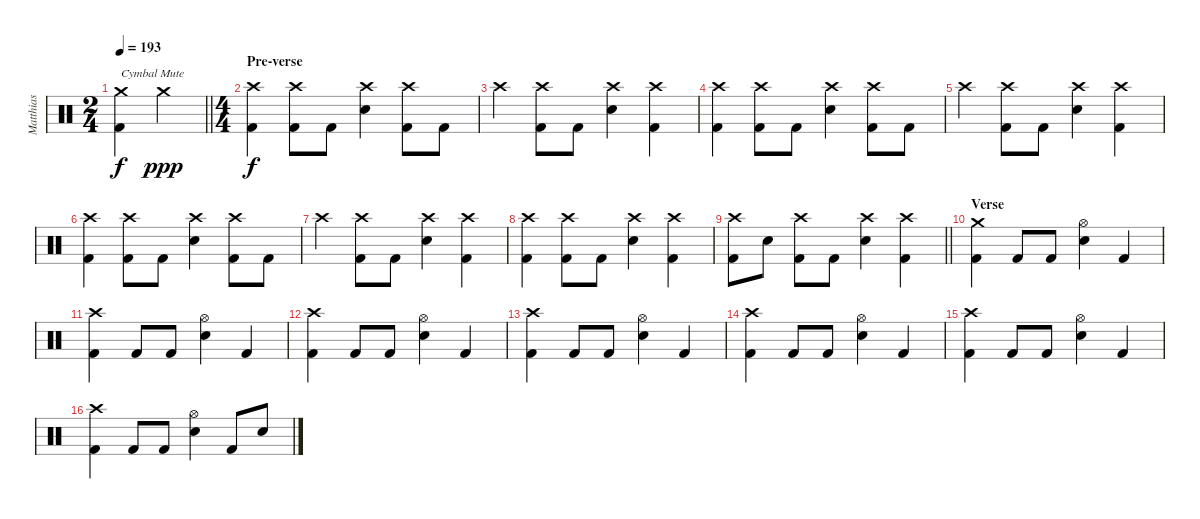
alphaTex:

\track ("Matthias" "Matthias") {instrument percussion}
\staff {score}
\articulation defaults
\ts (2 4)
\tempo 193
\clef neutral
\barLineRight lightlight
\ks c
("Crash medium (hit)" "Kick (hit) 2").4{txt "Cymbal Mute" dy f} "Crash medium (hit)".4{dy ppp} |
\ts (4 4)
\section ("" "Pre-verse")
("Crash high (hit)" "Kick (hit) 2").4{dy f} ("Crash high (hit)" "Kick (hit) 2").8 "Kick (hit) 2".8 ("Crash high (hit)" "Electric Snare (hit)").4 ("Crash high (hit)" "Kick (hit) 2").8 "Kick (hit) 2".8 |
"Crash high (hit)".4 ("Crash high (hit)" "Kick (hit) 2").8 "Kick (hit) 2".8 ("Crash high (hit)" "Electric Snare (hit)").4 ("Crash high (hit)" "Kick (hit) 2").4 |
("Crash high (hit)" "Kick (hit) 2").4 ("Crash high (hit)" "Kick (hit) 2").8 "Kick (hit) 2".8 ("Crash high (hit)" "Electric Snare (hit)").4 ("Crash high (hit)" "Kick (hit) 2").8 "Kick (hit) 2".8 |
"Crash high (hit)".4 ("Crash high (hit)" "Kick (hit) 2").8 "Kick (hit) 2".8 ("Crash high (hit)" "Electric Snare (hit)").4 ("Crash high (hit)" "Kick (hit) 2").4 |
("Crash high (hit)" "Kick (hit) 2").4 ("Crash high (hit)" "Kick (hit) 2").8 "Kick (hit) 2".8 ("Crash high (hit)" "Electric Snare (hit)").4 ("Crash high (hit)" "Kick (hit) 2").8 "Kick (hit) 2".8 |
"Crash high (hit)".4 ("Crash high (hit)" "Kick (hit) 2").8 "Kick (hit) 2".8 ("Crash high (hit)" "Electric Snare (hit)").4 ("Crash high (hit)" "Kick (hit) 2").4 |
("Crash high (hit)" "Kick (hit) 2").4 ("Crash high (hit)" "Kick (hit) 2").8 "Kick (hit) 2".8 ("Crash high (hit)" "Electric Snare (hit)").4 ("Crash high (hit)" "Kick (hit) 2").4 |
\barLineRight lightlight
("Crash high (hit)" "Kick (hit) 2").8 "Electric Snare (hit)".8 ("Crash high (hit)" "Kick (hit) 2").8 "Kick (hit) 2".8 ("Crash high (hit)" "Electric Snare (hit)").4 ("Crash high (hit)" "Kick (hit) 2").4 |
\section ("" "Verse")
("Crash medium (hit)" "Kick (hit) 2").4 "Kick (hit) 2".8 "Kick (hit) 2".8 ("Hi-Hat (open)" "Electric Snare (hit)").4 "Kick (hit) 2".4 |
("Crash high (hit)" "Kick (hit) 2").4 "Kick (hit) 2".8 "Kick (hit) 2".8 ("Hi-Hat (open)" "Electric Snare (hit)").4 "Kick (hit) 2".4 |
("Crash high (hit)" "Kick (hit) 2").4 "Kick (hit) 2".8 "Kick (hit) 2".8 ("Hi-Hat (open)" "Electric Snare (hit)").4 "Kick (hit) 2".4 |
("Crash high (hit)" "Kick (hit) 2").4 "Kick (hit) 2".8 "Kick (hit) 2".8 ("Hi-Hat (open)" "Electric Snare (hit)").4 "Kick (hit) 2".4 |
("Crash high (hit)" "Kick (hit) 2").4 "Kick (hit) 2".8 "Kick (hit) 2".8 ("Hi-Hat (open)" "Electric Snare (hit)").4 "Kick (hit) 2".4 |
("Crash high (hit)" "Kick (hit) 2").4 "Kick (hit) 2".8 "Kick (hit) 2".8 ("Hi-Hat (open)" "Electric Snare (hit)").4 "Kick (hit) 2".4 |
("Crash high (hit)" "Kick (hit) 2").4 "Kick (hit) 2".8 "Kick (hit) 2".8 ("Hi-Hat (open)" "Electric Snare (hit)").4 "Kick (hit) 2".8 "Electric Snare (hit)".8
